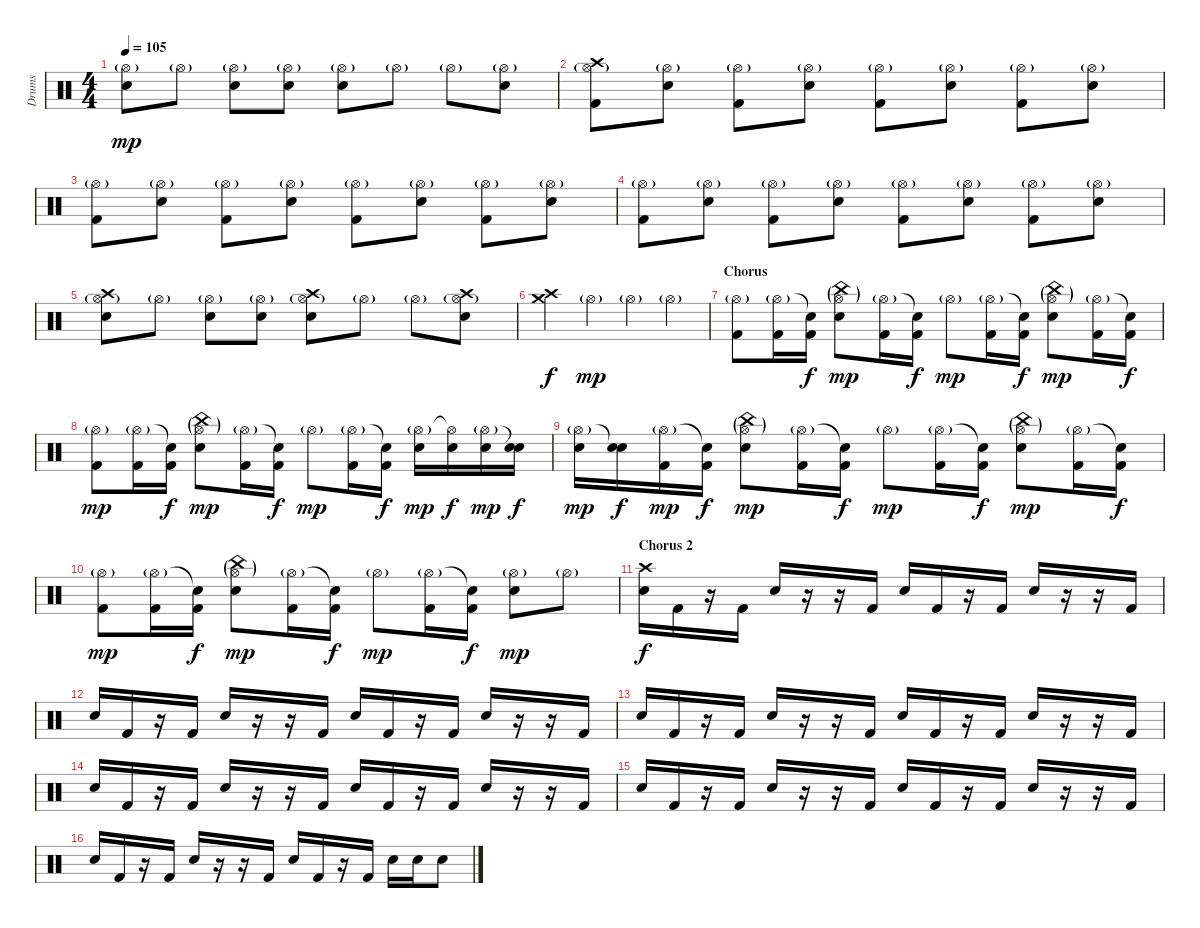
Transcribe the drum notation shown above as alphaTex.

\track ("Drums" "Drums") {instrument percussion}
\staff {score}
\articulation defaults
\ts (4 4)
\tempo 105
\clef neutral
\ks c
("Hi-Hat (open)"{g} "Electric Snare (hit)").8{dy mp} "Hi-Hat (open)"{g}.8 ("Hi-Hat (open)"{g} "Electric Snare (hit)").8 ("Hi-Hat (open)"{g} "Electric Snare (hit)").8 ("Hi-Hat (open)"{g} "Electric Snare (hit)").8 "Hi-Hat (open)"{g}.8 "Hi-Hat (open)"{g}.8 ("Hi-Hat (open)"{g} "Electric Snare (hit)").8 |
("Crash high (hit)" "Hi-Hat (open)"{g} "Kick (hit) 2").8 ("Hi-Hat (open)"{g} "Electric Snare (hit)").8 ("Hi-Hat (open)"{g} "Kick (hit) 2").8 ("Hi-Hat (open)"{g} "Electric Snare (hit)").8 ("Hi-Hat (open)"{g} "Kick (hit) 2").8 ("Hi-Hat (open)"{g} "Electric Snare (hit)").8 ("Hi-Hat (open)"{g} "Kick (hit) 2").8 ("Hi-Hat (open)"{g} "Electric Snare (hit)").8 |
("Hi-Hat (open)"{g} "Kick (hit) 2").8 ("Hi-Hat (open)"{g} "Electric Snare (hit)").8 ("Hi-Hat (open)"{g} "Kick (hit) 2").8 ("Hi-Hat (open)"{g} "Electric Snare (hit)").8 ("Hi-Hat (open)"{g} "Kick (hit) 2").8 ("Hi-Hat (open)"{g} "Electric Snare (hit)").8 ("Hi-Hat (open)"{g} "Kick (hit) 2").8 ("Hi-Hat (open)"{g} "Electric Snare (hit)").8 |
("Hi-Hat (open)"{g} "Kick (hit) 2").8 ("Hi-Hat (open)"{g} "Electric Snare (hit)").8 ("Hi-Hat (open)"{g} "Kick (hit) 2").8 ("Hi-Hat (open)"{g} "Electric Snare (hit)").8 ("Hi-Hat (open)"{g} "Kick (hit) 2").8 ("Hi-Hat (open)"{g} "Electric Snare (hit)").8 ("Hi-Hat (open)"{g} "Kick (hit) 2").8 ("Hi-Hat (open)"{g} "Electric Snare (hit)").8 |
("Crash high (hit)" "Hi-Hat (open)"{g} "Electric Snare (hit)").8 "Hi-Hat (open)"{g}.8 ("Hi-Hat (open)"{g} "Electric Snare (hit)").8 ("Hi-Hat (open)"{g} "Electric Snare (hit)").8 ("Crash high (hit)" "Hi-Hat (open)"{g} "Electric Snare (hit)").8 "Hi-Hat (open)"{g}.8 "Hi-Hat (open)"{g}.8 ("Crash high (hit)" "Hi-Hat (open)"{g} "Electric Snare (hit)").8 |
("Crash high (hit)" "Crash medium (hit)").4{dy f} "Hi-Hat (open)"{g}.4{dy mp} "Hi-Hat (open)"{g}.4 "Hi-Hat (open)"{g}.4 |
\section ("" "Chorus")
("Hi-Hat (open)"{g} "Kick (hit) 2").8 ("Hi-Hat (open)"{g} "Kick (hit) 2").16 ("Snare (hit)"{t} "Kick (hit) 2").16{dy f} ("China (hit)"{g} "Hi-Hat (open)"{g} "Electric Snare (hit)").8{dy mp} ("Hi-Hat (open)"{g} "Kick (hit) 2").16 ("Snare (hit)"{t} "Kick (hit) 2").16{dy f} "Hi-Hat (open)"{g}.8{dy mp} ("Hi-Hat (open)"{g} "Kick (hit) 2").16 ("Snare (hit)"{t} "Kick (hit) 2").16{dy f} ("China (hit)"{g} "Hi-Hat (open)"{g} "Electric Snare (hit)").8{dy mp} ("Hi-Hat (open)"{g} "Kick (hit) 2").16 ("Snare (hit)"{t} "Kick (hit) 2").16{dy f} |
("Hi-Hat (open)"{g} "Kick (hit) 2").8{dy mp} ("Hi-Hat (open)"{g} "Kick (hit) 2").16 ("Snare (hit)"{t} "Kick (hit) 2").16{dy f} ("China (hit)"{g} "Hi-Hat (open)"{g} "Electric Snare (hit)").8{dy mp} ("Hi-Hat (open)"{g} "Kick (hit) 2").16 ("Snare (hit)"{t} "Kick (hit) 2").16{dy f} "Hi-Hat (open)"{g}.8{dy mp} ("Hi-Hat (open)"{g} "Kick (hit) 2").16 ("Snare (hit)"{t} "Kick (hit) 2").16{dy f} ("Hi-Hat (open)"{g} "Electric Snare (hit)").16{dy mp} ("Hi-Hat (open)"{t} "Electric Snare (hit)").16{dy f} ("Hi-Hat (open)"{g} "Electric Snare (hit)").16{dy mp} ("Snare (hit)"{t} "Electric Snare (hit)").16{dy f} |
("Hi-Hat (open)"{g} "Electric Snare (hit)").16{dy mp} ("Snare (hit)"{t} "Electric Snare (hit)").16{dy f} ("Hi-Hat (open)"{g} "Kick (hit) 2").16{dy mp} ("Snare (hit)"{t} "Kick (hit) 2").16{dy f} ("China (hit)"{g} "Hi-Hat (open)"{g} "Electric Snare (hit)").8{dy mp} ("Hi-Hat (open)"{g} "Kick (hit) 2").16 ("Snare (hit)"{t} "Kick (hit) 2").16{dy f} "Hi-Hat (open)"{g}.8{dy mp} ("Hi-Hat (open)"{g} "Kick (hit) 2").16 ("Snare (hit)"{t} "Kick (hit) 2").16{dy f} ("China (hit)"{g} "Hi-Hat (open)"{g} "Electric Snare (hit)").8{dy mp} ("Hi-Hat (open)"{g} "Kick (hit) 2").16 ("Snare (hit)"{t} "Kick (hit) 2").16{dy f} |
("Hi-Hat (open)"{g} "Kick (hit) 2").8{dy mp} ("Hi-Hat (open)"{g} "Kick (hit) 2").16 ("Snare (hit)"{t} "Kick (hit) 2").16{dy f} ("China (hit)"{g} "Hi-Hat (open)"{g} "Electric Snare (hit)").8{dy mp} ("Hi-Hat (open)"{g} "Kick (hit) 2").16 ("Snare (hit)"{t} "Kick (hit) 2").16{dy f} "Hi-Hat (open)"{g}.8{dy mp} ("Hi-Hat (open)"{g} "Kick (hit) 2").16 ("Snare (hit)"{t} "Kick (hit) 2").16{dy f} ("Hi-Hat (open)"{g} "Electric Snare (hit)").8{dy mp} "Hi-Hat (open)"{g}.8 |
\section ("" "Chorus 2")
("Crash high (hit)" "Electric Snare (hit)").16{dy f} "Kick (hit) 2".16 r.16 "Kick (hit) 2".16 "Electric Snare (hit)".16 r.16 r.16 "Kick (hit) 2".16 "Electric Snare (hit)".16 "Kick (hit) 2".16 r.16 "Kick (hit) 2".16 "Electric Snare (hit)".16 r.16 r.16 "Kick (hit) 2".16 |
"Electric Snare (hit)".16 "Kick (hit) 2".16 r.16 "Kick (hit) 2".16 "Electric Snare (hit)".16 r.16 r.16 "Kick (hit) 2".16 "Electric Snare (hit)".16 "Kick (hit) 2".16 r.16 "Kick (hit) 2".16 "Electric Snare (hit)".16 r.16 r.16 "Kick (hit) 2".16 |
"Electric Snare (hit)".16 "Kick (hit) 2".16 r.16 "Kick (hit) 2".16 "Electric Snare (hit)".16 r.16 r.16 "Kick (hit) 2".16 "Electric Snare (hit)".16 "Kick (hit) 2".16 r.16 "Kick (hit) 2".16 "Electric Snare (hit)".16 r.16 r.16 "Kick (hit) 2".16 |
"Electric Snare (hit)".16 "Kick (hit) 2".16 r.16 "Kick (hit) 2".16 "Electric Snare (hit)".16 r.16 r.16 "Kick (hit) 2".16 "Electric Snare (hit)".16 "Kick (hit) 2".16 r.16 "Kick (hit) 2".16 "Electric Snare (hit)".16 r.16 r.16 "Kick (hit) 2".16 |
"Electric Snare (hit)".16 "Kick (hit) 2".16 r.16 "Kick (hit) 2".16 "Electric Snare (hit)".16 r.16 r.16 "Kick (hit) 2".16 "Electric Snare (hit)".16 "Kick (hit) 2".16 r.16 "Kick (hit) 2".16 "Electric Snare (hit)".16 r.16 r.16 "Kick (hit) 2".16 |
"Electric Snare (hit)".16 "Kick (hit) 2".16 r.16 "Kick (hit) 2".16 "Electric Snare (hit)".16 r.16 r.16 "Kick (hit) 2".16 "Electric Snare (hit)".16 "Kick (hit) 2".16 r.16 "Kick (hit) 2".16 "Electric Snare (hit)".16 "Electric Snare (hit)".16 "Electric Snare (hit)".8
